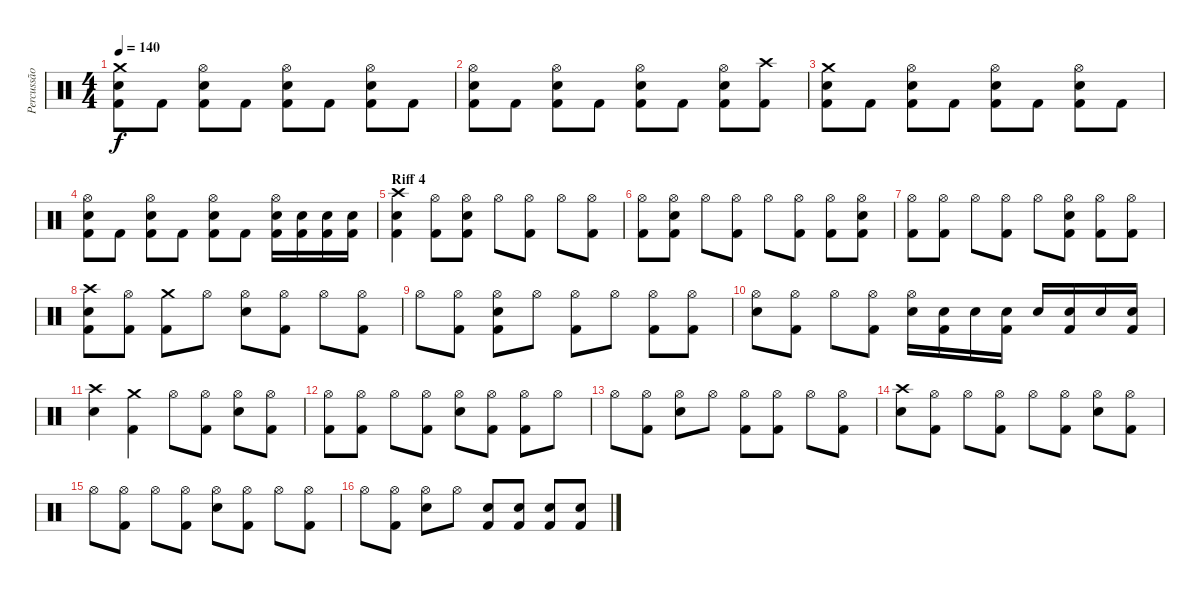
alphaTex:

\track ("Percussão" "Percussão") {instrument percussion}
\staff {score}
\articulation defaults
\ts (4 4)
\tempo 140
\clef neutral
\ks c
("Crash medium (hit)" "Snare (hit) 2" "Kick (hit) 2").8{dy f} "Kick (hit) 2".8 ("Hi-Hat (open)" "Snare (hit) 2" "Kick (hit) 2").8 "Kick (hit) 2".8 ("Hi-Hat (open)" "Snare (hit) 2" "Kick (hit) 2").8 "Kick (hit) 2".8 ("Hi-Hat (open)" "Snare (hit) 2" "Kick (hit) 2").8 "Kick (hit) 2".8 |
("Hi-Hat (open)" "Snare (hit) 2" "Kick (hit) 2").8 "Kick (hit) 2".8 ("Hi-Hat (open)" "Snare (hit) 2" "Kick (hit) 2").8 "Kick (hit) 2".8 ("Hi-Hat (open)" "Snare (hit) 2" "Kick (hit) 2").8 "Kick (hit) 2".8 ("Hi-Hat (open)" "Snare (hit) 2" "Kick (hit) 2").8 ("Crash high (hit)" "Kick (hit) 2").8 |
("Crash medium (hit)" "Snare (hit) 2" "Kick (hit) 2").8 "Kick (hit) 2".8 ("Hi-Hat (open)" "Snare (hit) 2" "Kick (hit) 2").8 "Kick (hit) 2".8 ("Hi-Hat (open)" "Snare (hit) 2" "Kick (hit) 2").8 "Kick (hit) 2".8 ("Hi-Hat (open)" "Snare (hit) 2" "Kick (hit) 2").8 "Kick (hit) 2".8 |
("Hi-Hat (open)" "Snare (hit) 2" "Kick (hit) 2").8 "Kick (hit) 2".8 ("Hi-Hat (open)" "Snare (hit) 2" "Kick (hit) 2").8 "Kick (hit) 2".8 ("Hi-Hat (open)" "Snare (hit) 2" "Kick (hit) 2").8 "Kick (hit) 2".8 ("Hi-Hat (open)" "Snare (hit) 2" "Kick (hit) 2").16 ("Snare (hit) 2" "Kick (hit) 2").16 ("Snare (hit) 2" "Kick (hit) 2").16 ("Snare (hit) 2" "Kick (hit) 2").16 |
\section ("" "Riff 4")
("Crash high (hit)" "Snare (hit) 2" "Kick (hit) 2").4 ("Hi-Hat (open)" "Kick (hit) 2").8 ("Hi-Hat (open)" "Snare (hit) 2" "Kick (hit) 2").8 "Hi-Hat (open)".8 ("Hi-Hat (open)" "Kick (hit) 2").8 "Hi-Hat (open)".8 ("Hi-Hat (open)" "Kick (hit) 2").8 |
("Hi-Hat (open)" "Kick (hit) 2").8 ("Hi-Hat (open)" "Snare (hit) 2" "Kick (hit) 2").8 "Hi-Hat (open)".8 ("Hi-Hat (open)" "Kick (hit) 2").8 "Hi-Hat (open)".8 ("Hi-Hat (open)" "Kick (hit) 2").8 ("Hi-Hat (open)" "Kick (hit) 2").8 ("Hi-Hat (open)" "Snare (hit) 2" "Kick (hit) 2").8 |
("Hi-Hat (open)" "Kick (hit) 2").8 ("Hi-Hat (open)" "Kick (hit) 2").8 "Hi-Hat (open)".8 ("Hi-Hat (open)" "Kick (hit) 2").8 "Hi-Hat (open)".8 ("Hi-Hat (open)" "Snare (hit) 2" "Kick (hit) 2").8 ("Hi-Hat (open)" "Kick (hit) 2").8 ("Hi-Hat (open)" "Kick (hit) 2").8 |
("Crash high (hit)" "Snare (hit) 2" "Kick (hit) 2").8 ("Hi-Hat (open)" "Kick (hit) 2").8 ("Crash medium (hit)" "Kick (hit) 2").8 "Hi-Hat (open)".8 ("Hi-Hat (open)" "Snare (hit) 2").8 ("Hi-Hat (open)" "Kick (hit) 2").8 "Hi-Hat (open)".8 ("Hi-Hat (open)" "Kick (hit) 2").8 |
"Hi-Hat (open)".8 ("Hi-Hat (open)" "Kick (hit) 2").8 ("Hi-Hat (open)" "Snare (hit) 2" "Kick (hit) 2").8 "Hi-Hat (open)".8 ("Hi-Hat (open)" "Kick (hit) 2").8 "Hi-Hat (open)".8 ("Hi-Hat (open)" "Kick (hit) 2").8 ("Hi-Hat (open)" "Kick (hit) 2").8 |
("Hi-Hat (open)" "Snare (hit) 2").8 ("Hi-Hat (open)" "Kick (hit) 2").8 "Hi-Hat (open)".8 ("Hi-Hat (open)" "Kick (hit) 2").8 ("Hi-Hat (open)" "Electric Snare (hit)").16 ("Electric Snare (hit)" "Kick (hit) 2").16 "Electric Snare (hit)".16 ("Electric Snare (hit)" "Kick (hit) 2").16 "Snare (hit) 2".16 ("Snare (hit) 2" "Kick (hit) 2").16 "Snare (hit) 2".16 ("Snare (hit) 2" "Kick (hit) 2").16 |
("Crash high (hit)" "Snare (hit) 2").4 ("Crash medium (hit)" "Kick (hit) 2").4 "Hi-Hat (open)".8 ("Hi-Hat (open)" "Kick (hit) 2").8 ("Hi-Hat (open)" "Snare (hit) 2").8 ("Hi-Hat (open)" "Kick (hit) 2").8 |
("Hi-Hat (open)" "Kick (hit) 2").8 ("Hi-Hat (open)" "Kick (hit) 2").8 "Hi-Hat (open)".8 ("Hi-Hat (open)" "Kick (hit) 2").8 ("Hi-Hat (open)" "Snare (hit) 2").8 ("Hi-Hat (open)" "Kick (hit) 2").8 ("Hi-Hat (open)" "Kick (hit) 2").8 "Hi-Hat (open)".8 |
"Hi-Hat (open)".8 ("Hi-Hat (open)" "Kick (hit) 2").8 ("Hi-Hat (open)" "Snare (hit) 2").8 "Hi-Hat (open)".8 ("Hi-Hat (open)" "Kick (hit) 2").8 ("Hi-Hat (open)" "Kick (hit) 2").8 "Hi-Hat (open)".8 ("Hi-Hat (open)" "Kick (hit) 2").8 |
("Crash high (hit)" "Snare (hit) 2").8 ("Hi-Hat (open)" "Kick (hit) 2").8 "Hi-Hat (open)".8 ("Hi-Hat (open)" "Kick (hit) 2").8 "Hi-Hat (open)".8 ("Hi-Hat (open)" "Kick (hit) 2").8 ("Hi-Hat (open)" "Snare (hit) 2").8 ("Hi-Hat (open)" "Kick (hit) 2").8 |
"Hi-Hat (open)".8 ("Hi-Hat (open)" "Kick (hit) 2").8 "Hi-Hat (open)".8 ("Hi-Hat (open)" "Kick (hit) 2").8 ("Hi-Hat (open)" "Snare (hit) 2").8 ("Hi-Hat (open)" "Kick (hit) 2").8 "Hi-Hat (open)".8 ("Hi-Hat (open)" "Kick (hit) 2").8 |
"Hi-Hat (open)".8 ("Hi-Hat (open)" "Kick (hit) 2").8 ("Hi-Hat (open)" "Snare (hit) 2").8 "Hi-Hat (open)".8 ("Snare (hit) 2" "Kick (hit) 2").8 ("Snare (hit) 2" "Kick (hit) 2").8 ("Snare (hit) 2" "Kick (hit) 2").8 ("Snare (hit) 2" "Kick (hit) 2").8
